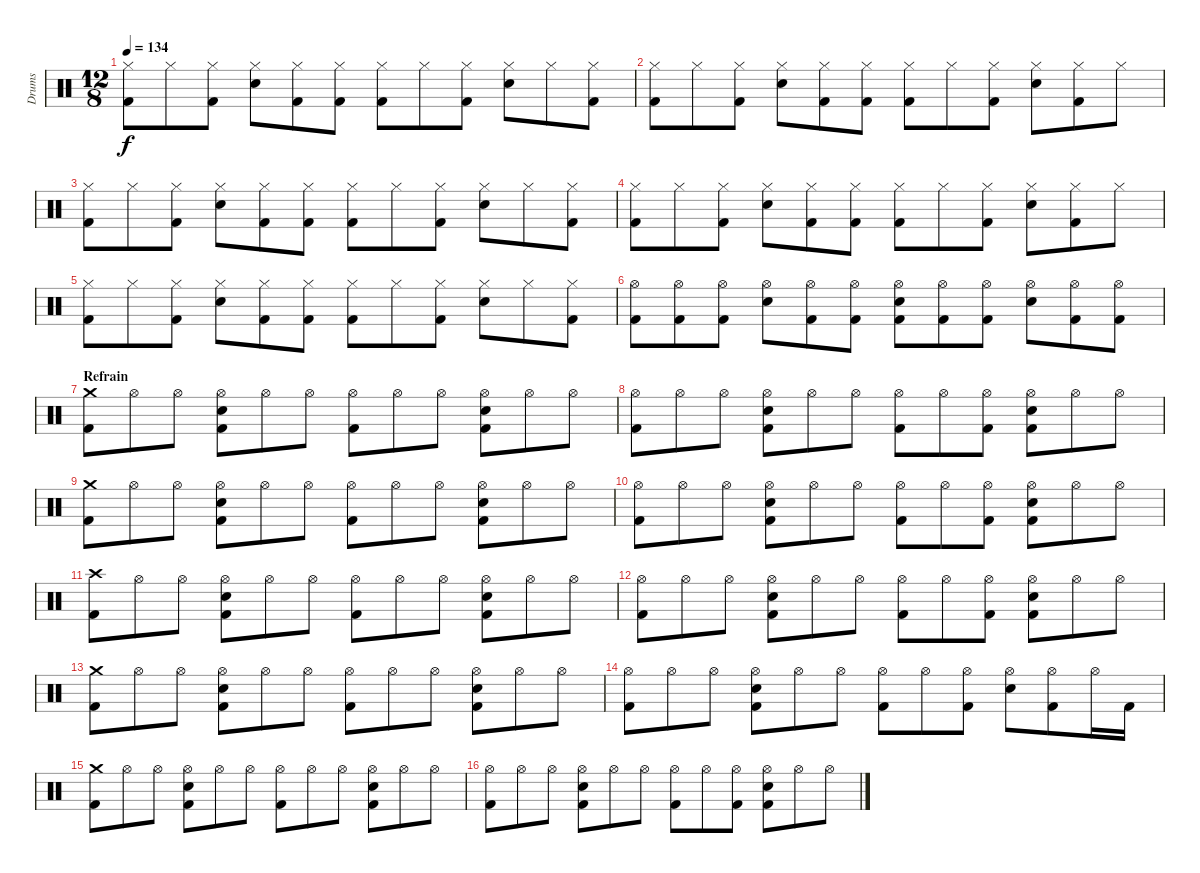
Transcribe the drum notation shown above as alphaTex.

\track ("Drums" "Drums") {instrument percussion}
\staff {score}
\articulation defaults
\ts (12 8)
\tempo 134
\clef neutral
\ks c
("Hi-Hat (closed)" "Kick (hit) 2").8{dy f} "Hi-Hat (closed)".8 ("Hi-Hat (closed)" "Kick (hit) 2").8 ("Hi-Hat (closed)" "Snare (hit) 2").8 ("Hi-Hat (closed)" "Kick (hit) 2").8 ("Hi-Hat (closed)" "Kick (hit) 2").8 ("Hi-Hat (closed)" "Kick (hit) 2").8 "Hi-Hat (closed)".8 ("Hi-Hat (closed)" "Kick (hit) 2").8 ("Hi-Hat (closed)" "Snare (hit) 2").8 "Hi-Hat (closed)".8 ("Hi-Hat (closed)" "Kick (hit) 2").8 |
("Hi-Hat (closed)" "Kick (hit) 2").8 "Hi-Hat (closed)".8 ("Hi-Hat (closed)" "Kick (hit) 2").8 ("Hi-Hat (closed)" "Snare (hit) 2").8 ("Hi-Hat (closed)" "Kick (hit) 2").8 ("Hi-Hat (closed)" "Kick (hit) 2").8 ("Hi-Hat (closed)" "Kick (hit) 2").8 "Hi-Hat (closed)".8 ("Hi-Hat (closed)" "Kick (hit) 2").8 ("Hi-Hat (closed)" "Snare (hit) 2").8 ("Hi-Hat (closed)" "Kick (hit) 2").8 "Hi-Hat (closed)".8 |
("Hi-Hat (closed)" "Kick (hit) 2").8 "Hi-Hat (closed)".8 ("Hi-Hat (closed)" "Kick (hit) 2").8 ("Hi-Hat (closed)" "Snare (hit) 2").8 ("Hi-Hat (closed)" "Kick (hit) 2").8 ("Hi-Hat (closed)" "Kick (hit) 2").8 ("Hi-Hat (closed)" "Kick (hit) 2").8 "Hi-Hat (closed)".8 ("Hi-Hat (closed)" "Kick (hit) 2").8 ("Hi-Hat (closed)" "Snare (hit) 2").8 "Hi-Hat (closed)".8 ("Hi-Hat (closed)" "Kick (hit) 2").8 |
("Hi-Hat (closed)" "Kick (hit) 2").8 "Hi-Hat (closed)".8 ("Hi-Hat (closed)" "Kick (hit) 2").8 ("Hi-Hat (closed)" "Snare (hit) 2").8 ("Hi-Hat (closed)" "Kick (hit) 2").8 ("Hi-Hat (closed)" "Kick (hit) 2").8 ("Hi-Hat (closed)" "Kick (hit) 2").8 "Hi-Hat (closed)".8 ("Hi-Hat (closed)" "Kick (hit) 2").8 ("Hi-Hat (closed)" "Snare (hit) 2").8 ("Hi-Hat (closed)" "Kick (hit) 2").8 "Hi-Hat (closed)".8 |
("Hi-Hat (closed)" "Kick (hit) 2").8 "Hi-Hat (closed)".8 ("Hi-Hat (closed)" "Kick (hit) 2").8 ("Hi-Hat (closed)" "Snare (hit) 2").8 ("Hi-Hat (closed)" "Kick (hit) 2").8 ("Hi-Hat (closed)" "Kick (hit) 2").8 ("Hi-Hat (closed)" "Kick (hit) 2").8 "Hi-Hat (closed)".8 ("Hi-Hat (closed)" "Kick (hit) 2").8 ("Hi-Hat (closed)" "Snare (hit) 2").8 "Hi-Hat (closed)".8 ("Hi-Hat (closed)" "Kick (hit) 2").8 |
("Hi-Hat (open)" "Kick (hit) 2").8 ("Hi-Hat (open)" "Kick (hit) 2").8 ("Hi-Hat (open)" "Kick (hit) 2").8 ("Hi-Hat (open)" "Snare (hit) 2").8 ("Hi-Hat (open)" "Kick (hit) 2").8 ("Hi-Hat (open)" "Kick (hit) 2").8 ("Hi-Hat (open)" "Snare (hit) 2" "Kick (hit) 2").8 ("Hi-Hat (open)" "Kick (hit) 2").8 ("Hi-Hat (open)" "Kick (hit) 2").8 ("Hi-Hat (open)" "Snare (hit) 2").8 ("Hi-Hat (open)" "Kick (hit) 2").8 ("Hi-Hat (open)" "Kick (hit) 2").8 |
\section ("" "Refrain")
("Crash medium (hit)" "Kick (hit) 2").8 "Hi-Hat (open)".8 "Hi-Hat (open)".8 ("Hi-Hat (open)" "Snare (hit) 2" "Kick (hit) 2").8 "Hi-Hat (open)".8 "Hi-Hat (open)".8 ("Hi-Hat (open)" "Kick (hit) 2").8 "Hi-Hat (open)".8 "Hi-Hat (open)".8 ("Hi-Hat (open)" "Snare (hit) 2" "Kick (hit) 2").8 "Hi-Hat (open)".8 "Hi-Hat (open)".8 |
("Hi-Hat (open)" "Kick (hit) 2").8 "Hi-Hat (open)".8 "Hi-Hat (open)".8 ("Hi-Hat (open)" "Snare (hit) 2" "Kick (hit) 2").8 "Hi-Hat (open)".8 "Hi-Hat (open)".8 ("Hi-Hat (open)" "Kick (hit) 2").8 "Hi-Hat (open)".8 ("Hi-Hat (open)" "Kick (hit) 2").8 ("Hi-Hat (open)" "Snare (hit) 2" "Kick (hit) 2").8 "Hi-Hat (open)".8 "Hi-Hat (open)".8 |
("Crash medium (hit)" "Kick (hit) 2").8 "Hi-Hat (open)".8 "Hi-Hat (open)".8 ("Hi-Hat (open)" "Snare (hit) 2" "Kick (hit) 2").8 "Hi-Hat (open)".8 "Hi-Hat (open)".8 ("Hi-Hat (open)" "Kick (hit) 2").8 "Hi-Hat (open)".8 "Hi-Hat (open)".8 ("Hi-Hat (open)" "Snare (hit) 2" "Kick (hit) 2").8 "Hi-Hat (open)".8 "Hi-Hat (open)".8 |
("Hi-Hat (open)" "Kick (hit) 2").8 "Hi-Hat (open)".8 "Hi-Hat (open)".8 ("Hi-Hat (open)" "Snare (hit) 2" "Kick (hit) 2").8 "Hi-Hat (open)".8 "Hi-Hat (open)".8 ("Hi-Hat (open)" "Kick (hit) 2").8 "Hi-Hat (open)".8 ("Hi-Hat (open)" "Kick (hit) 2").8 ("Hi-Hat (open)" "Snare (hit) 2" "Kick (hit) 2").8 "Hi-Hat (open)".8 "Hi-Hat (open)".8 |
("Crash high (hit)" "Kick (hit) 2").8 "Hi-Hat (open)".8 "Hi-Hat (open)".8 ("Hi-Hat (open)" "Snare (hit) 2" "Kick (hit) 2").8 "Hi-Hat (open)".8 "Hi-Hat (open)".8 ("Hi-Hat (open)" "Kick (hit) 2").8 "Hi-Hat (open)".8 "Hi-Hat (open)".8 ("Hi-Hat (open)" "Snare (hit) 2" "Kick (hit) 2").8 "Hi-Hat (open)".8 "Hi-Hat (open)".8 |
("Hi-Hat (open)" "Kick (hit) 2").8 "Hi-Hat (open)".8 "Hi-Hat (open)".8 ("Hi-Hat (open)" "Snare (hit) 2" "Kick (hit) 2").8 "Hi-Hat (open)".8 "Hi-Hat (open)".8 ("Hi-Hat (open)" "Kick (hit) 2").8 "Hi-Hat (open)".8 ("Hi-Hat (open)" "Kick (hit) 2").8 ("Hi-Hat (open)" "Snare (hit) 2" "Kick (hit) 2").8 "Hi-Hat (open)".8 "Hi-Hat (open)".8 |
("Crash medium (hit)" "Kick (hit) 2").8 "Hi-Hat (open)".8 "Hi-Hat (open)".8 ("Hi-Hat (open)" "Snare (hit) 2" "Kick (hit) 2").8 "Hi-Hat (open)".8 "Hi-Hat (open)".8 ("Hi-Hat (open)" "Kick (hit) 2").8 "Hi-Hat (open)".8 "Hi-Hat (open)".8 ("Hi-Hat (open)" "Snare (hit) 2" "Kick (hit) 2").8 "Hi-Hat (open)".8 "Hi-Hat (open)".8 |
("Hi-Hat (open)" "Kick (hit) 2").8 "Hi-Hat (open)".8 "Hi-Hat (open)".8 ("Hi-Hat (open)" "Snare (hit) 2" "Kick (hit) 2").8 "Hi-Hat (open)".8 "Hi-Hat (open)".8 ("Hi-Hat (open)" "Kick (hit) 2").8 "Hi-Hat (open)".8 ("Hi-Hat (open)" "Kick (hit) 2").8 ("Hi-Hat (open)" "Snare (hit) 2").8 ("Hi-Hat (open)" "Kick (hit) 2").8 "Hi-Hat (open)".16 "Kick (hit) 2".16 |
("Crash medium (hit)" "Kick (hit) 2").8 "Hi-Hat (open)".8 "Hi-Hat (open)".8 ("Hi-Hat (open)" "Snare (hit) 2" "Kick (hit) 2").8 "Hi-Hat (open)".8 "Hi-Hat (open)".8 ("Hi-Hat (open)" "Kick (hit) 2").8 "Hi-Hat (open)".8 "Hi-Hat (open)".8 ("Hi-Hat (open)" "Snare (hit) 2" "Kick (hit) 2").8 "Hi-Hat (open)".8 "Hi-Hat (open)".8 |
("Hi-Hat (open)" "Kick (hit) 2").8 "Hi-Hat (open)".8 "Hi-Hat (open)".8 ("Hi-Hat (open)" "Snare (hit) 2" "Kick (hit) 2").8 "Hi-Hat (open)".8 "Hi-Hat (open)".8 ("Hi-Hat (open)" "Kick (hit) 2").8 "Hi-Hat (open)".8 ("Hi-Hat (open)" "Kick (hit) 2").8 ("Hi-Hat (open)" "Snare (hit) 2" "Kick (hit) 2").8 "Hi-Hat (open)".8 "Hi-Hat (open)".8
